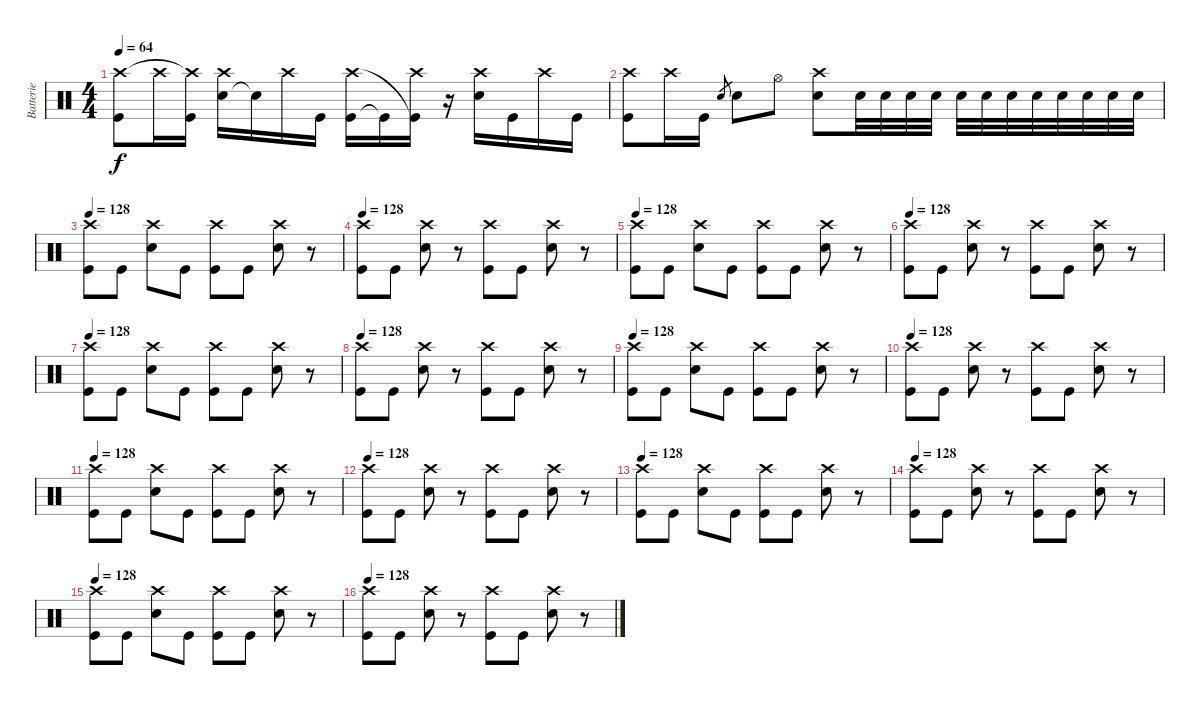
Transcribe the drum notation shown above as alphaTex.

\track ("Batterie" "Batterie") {instrument percussion}
\staff {score}
\articulation defaults
\ts (4 4)
\tempo 64
\clef neutral
\ks c
("Kick (hit)" "Crash high (hit)").8{dy f} "Crash high (hit)".16 ("Kick (hit)" "Crash high (hit)"{t}).16 ("Snare (hit) 2" "Crash high (hit)").16 "Snare (hit) 2"{t}.16 "Crash high (hit)".16 "Kick (hit)".16 ("Kick (hit)" "Crash high (hit)").16 "Kick (hit)"{t}.16 ("Crash high (hit)" "Kick (hit)"{t}).16 r.16 ("Snare (hit) 2" "Crash high (hit)").16 "Kick (hit)".16 "Crash high (hit)".16 "Kick (hit)".16 |
("Kick (hit)" "Crash high (hit)").8 "Crash high (hit)".16 "Kick (hit)".16 "Snare (hit) 2".8{gr} "Snare (hit) 2".8 "Hi-Hat (open)".8 ("Crash high (hit)" "Snare (hit) 2").8 "Snare (hit) 2".32 "Snare (hit) 2".32 "Snare (hit) 2".32 "Snare (hit) 2".32 "Snare (hit) 2".32 "Snare (hit) 2".32 "Snare (hit) 2".32 "Snare (hit) 2".32 "Snare (hit) 2".32 "Snare (hit) 2".32 "Snare (hit) 2".32 "Snare (hit) 2".32 |
\tempo 128
("Kick (hit)" "Crash high (hit)").8 "Kick (hit)".8 ("Snare (hit) 2" "Crash high (hit)").8 "Kick (hit)".8 ("Kick (hit)" "Crash high (hit)").8 "Kick (hit)".8 ("Snare (hit) 2" "Crash high (hit)").8 r.8 |
\tempo 128
("Kick (hit)" "Crash high (hit)").8 "Kick (hit)".8 ("Snare (hit) 2" "Crash high (hit)").8 r.8 ("Kick (hit)" "Crash high (hit)").8 "Kick (hit)".8 ("Snare (hit) 2" "Crash high (hit)").8 r.8 |
\tempo 128
("Kick (hit)" "Crash high (hit)").8 "Kick (hit)".8 ("Snare (hit) 2" "Crash high (hit)").8 "Kick (hit)".8 ("Kick (hit)" "Crash high (hit)").8 "Kick (hit)".8 ("Snare (hit) 2" "Crash high (hit)").8 r.8 |
\tempo 128
("Kick (hit)" "Crash high (hit)").8 "Kick (hit)".8 ("Snare (hit) 2" "Crash high (hit)").8 r.8 ("Kick (hit)" "Crash high (hit)").8 "Kick (hit)".8 ("Snare (hit) 2" "Crash high (hit)").8 r.8 |
\tempo 128
("Kick (hit)" "Crash high (hit)").8 "Kick (hit)".8 ("Snare (hit) 2" "Crash high (hit)").8 "Kick (hit)".8 ("Kick (hit)" "Crash high (hit)").8 "Kick (hit)".8 ("Snare (hit) 2" "Crash high (hit)").8 r.8 |
\tempo 128
("Kick (hit)" "Crash high (hit)").8 "Kick (hit)".8 ("Snare (hit) 2" "Crash high (hit)").8 r.8 ("Kick (hit)" "Crash high (hit)").8 "Kick (hit)".8 ("Snare (hit) 2" "Crash high (hit)").8 r.8 |
\tempo 128
("Kick (hit)" "Crash high (hit)").8 "Kick (hit)".8 ("Snare (hit) 2" "Crash high (hit)").8 "Kick (hit)".8 ("Kick (hit)" "Crash high (hit)").8 "Kick (hit)".8 ("Snare (hit) 2" "Crash high (hit)").8 r.8 |
\tempo 128
("Kick (hit)" "Crash high (hit)").8 "Kick (hit)".8 ("Snare (hit) 2" "Crash high (hit)").8 r.8 ("Kick (hit)" "Crash high (hit)").8 "Kick (hit)".8 ("Snare (hit) 2" "Crash high (hit)").8 r.8 |
\tempo 128
("Kick (hit)" "Crash high (hit)").8 "Kick (hit)".8 ("Snare (hit) 2" "Crash high (hit)").8 "Kick (hit)".8 ("Kick (hit)" "Crash high (hit)").8 "Kick (hit)".8 ("Snare (hit) 2" "Crash high (hit)").8 r.8 |
\tempo 128
("Kick (hit)" "Crash high (hit)").8 "Kick (hit)".8 ("Snare (hit) 2" "Crash high (hit)").8 r.8 ("Kick (hit)" "Crash high (hit)").8 "Kick (hit)".8 ("Snare (hit) 2" "Crash high (hit)").8 r.8 |
\tempo 128
("Kick (hit)" "Crash high (hit)").8 "Kick (hit)".8 ("Snare (hit) 2" "Crash high (hit)").8 "Kick (hit)".8 ("Kick (hit)" "Crash high (hit)").8 "Kick (hit)".8 ("Snare (hit) 2" "Crash high (hit)").8 r.8 |
\tempo 128
("Kick (hit)" "Crash high (hit)").8 "Kick (hit)".8 ("Snare (hit) 2" "Crash high (hit)").8 r.8 ("Kick (hit)" "Crash high (hit)").8 "Kick (hit)".8 ("Snare (hit) 2" "Crash high (hit)").8 r.8 |
\tempo 128
("Kick (hit)" "Crash high (hit)").8 "Kick (hit)".8 ("Snare (hit) 2" "Crash high (hit)").8 "Kick (hit)".8 ("Kick (hit)" "Crash high (hit)").8 "Kick (hit)".8 ("Snare (hit) 2" "Crash high (hit)").8 r.8 |
\tempo 128
("Kick (hit)" "Crash high (hit)").8 "Kick (hit)".8 ("Snare (hit) 2" "Crash high (hit)").8 r.8 ("Kick (hit)" "Crash high (hit)").8 "Kick (hit)".8 ("Snare (hit) 2" "Crash high (hit)").8 r.8
